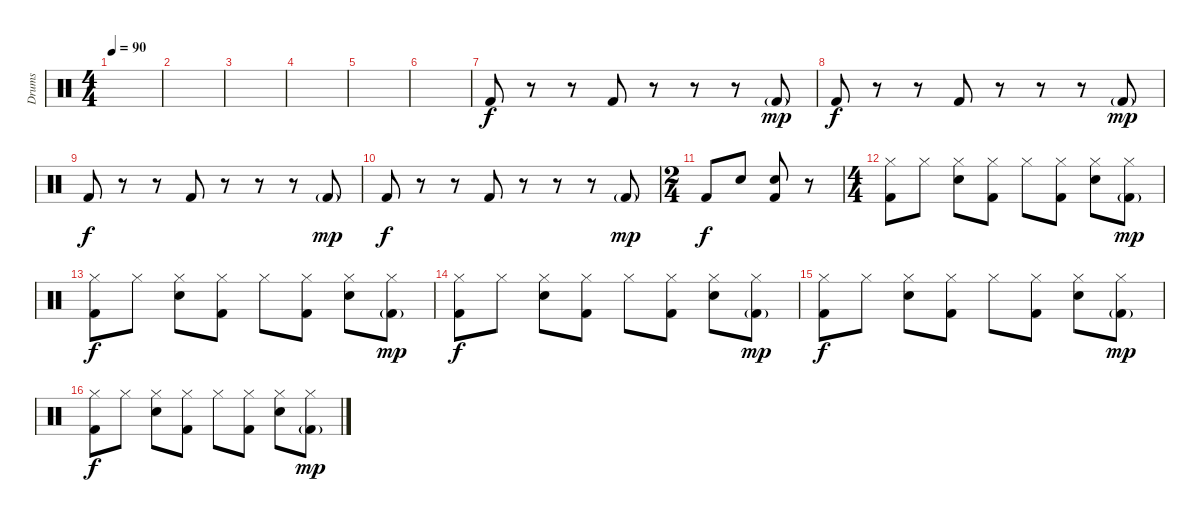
\track ("Drums" "Drums") {instrument percussion}
\staff {score}
\articulation defaults
\ts (4 4)
\tempo 90
\clef neutral
\ks c
|
|
|
|
|
|
"Kick (hit) 2".8 r.8 r.8 "Kick (hit) 2".8 r.8 r.8 r.8 "Kick (hit) 2"{g}.8{dy mp} |
"Kick (hit) 2".8{dy f} r.8 r.8 "Kick (hit) 2".8 r.8 r.8 r.8 "Kick (hit) 2"{g}.8{dy mp} |
"Kick (hit) 2".8{dy f} r.8 r.8 "Kick (hit) 2".8 r.8 r.8 r.8 "Kick (hit) 2"{g}.8{dy mp} |
"Kick (hit) 2".8{dy f} r.8 r.8 "Kick (hit) 2".8 r.8 r.8 r.8 "Kick (hit) 2"{g}.8{dy mp} |
\ts (2 4)
"Kick (hit) 2".8{dy f} "Snare (hit) 2".8 ("Snare (hit) 2" "Kick (hit) 2").8 r.8 |
\ts (4 4)
("Hi-Hat (closed)" "Kick (hit) 2").8 "Hi-Hat (closed)".8 ("Hi-Hat (closed)" "Snare (hit) 2").8 ("Hi-Hat (closed)" "Kick (hit) 2").8 "Hi-Hat (closed)".8 ("Hi-Hat (closed)" "Kick (hit) 2").8 ("Hi-Hat (closed)" "Snare (hit) 2").8 ("Hi-Hat (closed)" "Kick (hit) 2"{g}).8{dy mp} |
("Hi-Hat (closed)" "Kick (hit) 2").8{dy f} "Hi-Hat (closed)".8 ("Hi-Hat (closed)" "Snare (hit) 2").8 ("Hi-Hat (closed)" "Kick (hit) 2").8 "Hi-Hat (closed)".8 ("Hi-Hat (closed)" "Kick (hit) 2").8 ("Hi-Hat (closed)" "Snare (hit) 2").8 ("Hi-Hat (closed)" "Kick (hit) 2"{g}).8{dy mp} |
("Hi-Hat (closed)" "Kick (hit) 2").8{dy f} "Hi-Hat (closed)".8 ("Hi-Hat (closed)" "Snare (hit) 2").8 ("Hi-Hat (closed)" "Kick (hit) 2").8 "Hi-Hat (closed)".8 ("Hi-Hat (closed)" "Kick (hit) 2").8 ("Hi-Hat (closed)" "Snare (hit) 2").8 ("Hi-Hat (closed)" "Kick (hit) 2"{g}).8{dy mp} |
("Hi-Hat (closed)" "Kick (hit) 2").8{dy f} "Hi-Hat (closed)".8 ("Hi-Hat (closed)" "Snare (hit) 2").8 ("Hi-Hat (closed)" "Kick (hit) 2").8 "Hi-Hat (closed)".8 ("Hi-Hat (closed)" "Kick (hit) 2").8 ("Hi-Hat (closed)" "Snare (hit) 2").8 ("Hi-Hat (closed)" "Kick (hit) 2"{g}).8{dy mp} |
("Hi-Hat (closed)" "Kick (hit) 2").8{dy f} "Hi-Hat (closed)".8 ("Hi-Hat (closed)" "Snare (hit) 2").8 ("Hi-Hat (closed)" "Kick (hit) 2").8 "Hi-Hat (closed)".8 ("Hi-Hat (closed)" "Kick (hit) 2").8 ("Hi-Hat (closed)" "Snare (hit) 2").8 ("Hi-Hat (closed)" "Kick (hit) 2"{g}).8{dy mp}
